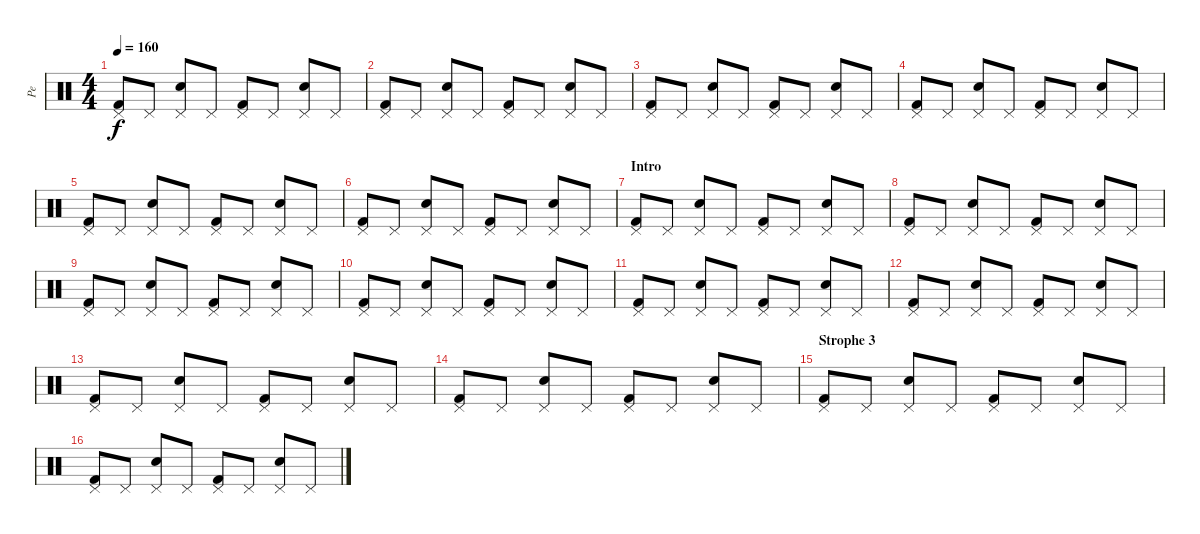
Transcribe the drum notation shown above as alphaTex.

\track ("Pe" "Pe") {instrument percussion}
\staff {score}
\articulation defaults
\ts (4 4)
\tempo 160
\clef neutral
\ks c
("Pedal Hi-Hat (hit)" "Kick (hit) 2").8{dy f} "Pedal Hi-Hat (hit)".8 ("Pedal Hi-Hat (hit)" "Electric Snare (hit)").8 "Pedal Hi-Hat (hit)".8 ("Pedal Hi-Hat (hit)" "Kick (hit) 2").8 "Pedal Hi-Hat (hit)".8 ("Pedal Hi-Hat (hit)" "Electric Snare (hit)").8 "Pedal Hi-Hat (hit)".8 |
("Pedal Hi-Hat (hit)" "Kick (hit) 2").8 "Pedal Hi-Hat (hit)".8 ("Pedal Hi-Hat (hit)" "Electric Snare (hit)").8 "Pedal Hi-Hat (hit)".8 ("Pedal Hi-Hat (hit)" "Kick (hit) 2").8 "Pedal Hi-Hat (hit)".8 ("Pedal Hi-Hat (hit)" "Electric Snare (hit)").8 "Pedal Hi-Hat (hit)".8 |
("Pedal Hi-Hat (hit)" "Kick (hit) 2").8 "Pedal Hi-Hat (hit)".8 ("Pedal Hi-Hat (hit)" "Electric Snare (hit)").8 "Pedal Hi-Hat (hit)".8 ("Pedal Hi-Hat (hit)" "Kick (hit) 2").8 "Pedal Hi-Hat (hit)".8 ("Pedal Hi-Hat (hit)" "Electric Snare (hit)").8 "Pedal Hi-Hat (hit)".8 |
("Pedal Hi-Hat (hit)" "Kick (hit) 2").8 "Pedal Hi-Hat (hit)".8 ("Pedal Hi-Hat (hit)" "Electric Snare (hit)").8 "Pedal Hi-Hat (hit)".8 ("Pedal Hi-Hat (hit)" "Kick (hit) 2").8 "Pedal Hi-Hat (hit)".8 ("Pedal Hi-Hat (hit)" "Electric Snare (hit)").8 "Pedal Hi-Hat (hit)".8 |
("Pedal Hi-Hat (hit)" "Kick (hit) 2").8 "Pedal Hi-Hat (hit)".8 ("Pedal Hi-Hat (hit)" "Electric Snare (hit)").8 "Pedal Hi-Hat (hit)".8 ("Pedal Hi-Hat (hit)" "Kick (hit) 2").8 "Pedal Hi-Hat (hit)".8 ("Pedal Hi-Hat (hit)" "Electric Snare (hit)").8 "Pedal Hi-Hat (hit)".8 |
("Pedal Hi-Hat (hit)" "Kick (hit) 2").8 "Pedal Hi-Hat (hit)".8 ("Pedal Hi-Hat (hit)" "Electric Snare (hit)").8 "Pedal Hi-Hat (hit)".8 ("Pedal Hi-Hat (hit)" "Kick (hit) 2").8 "Pedal Hi-Hat (hit)".8 ("Pedal Hi-Hat (hit)" "Electric Snare (hit)").8 "Pedal Hi-Hat (hit)".8 |
\section ("" "Intro")
("Pedal Hi-Hat (hit)" "Kick (hit) 2").8 "Pedal Hi-Hat (hit)".8 ("Pedal Hi-Hat (hit)" "Electric Snare (hit)").8 "Pedal Hi-Hat (hit)".8 ("Pedal Hi-Hat (hit)" "Kick (hit) 2").8 "Pedal Hi-Hat (hit)".8 ("Pedal Hi-Hat (hit)" "Electric Snare (hit)").8 "Pedal Hi-Hat (hit)".8 |
("Pedal Hi-Hat (hit)" "Kick (hit) 2").8 "Pedal Hi-Hat (hit)".8 ("Pedal Hi-Hat (hit)" "Electric Snare (hit)").8 "Pedal Hi-Hat (hit)".8 ("Pedal Hi-Hat (hit)" "Kick (hit) 2").8 "Pedal Hi-Hat (hit)".8 ("Pedal Hi-Hat (hit)" "Electric Snare (hit)").8 "Pedal Hi-Hat (hit)".8 |
("Pedal Hi-Hat (hit)" "Kick (hit) 2").8 "Pedal Hi-Hat (hit)".8 ("Pedal Hi-Hat (hit)" "Electric Snare (hit)").8 "Pedal Hi-Hat (hit)".8 ("Pedal Hi-Hat (hit)" "Kick (hit) 2").8 "Pedal Hi-Hat (hit)".8 ("Pedal Hi-Hat (hit)" "Electric Snare (hit)").8 "Pedal Hi-Hat (hit)".8 |
("Pedal Hi-Hat (hit)" "Kick (hit) 2").8 "Pedal Hi-Hat (hit)".8 ("Pedal Hi-Hat (hit)" "Electric Snare (hit)").8 "Pedal Hi-Hat (hit)".8 ("Pedal Hi-Hat (hit)" "Kick (hit) 2").8 "Pedal Hi-Hat (hit)".8 ("Pedal Hi-Hat (hit)" "Electric Snare (hit)").8 "Pedal Hi-Hat (hit)".8 |
("Pedal Hi-Hat (hit)" "Kick (hit) 2").8 "Pedal Hi-Hat (hit)".8 ("Pedal Hi-Hat (hit)" "Electric Snare (hit)").8 "Pedal Hi-Hat (hit)".8 ("Pedal Hi-Hat (hit)" "Kick (hit) 2").8 "Pedal Hi-Hat (hit)".8 ("Pedal Hi-Hat (hit)" "Electric Snare (hit)").8 "Pedal Hi-Hat (hit)".8 |
("Pedal Hi-Hat (hit)" "Kick (hit) 2").8 "Pedal Hi-Hat (hit)".8 ("Pedal Hi-Hat (hit)" "Electric Snare (hit)").8 "Pedal Hi-Hat (hit)".8 ("Pedal Hi-Hat (hit)" "Kick (hit) 2").8 "Pedal Hi-Hat (hit)".8 ("Pedal Hi-Hat (hit)" "Electric Snare (hit)").8 "Pedal Hi-Hat (hit)".8 |
("Pedal Hi-Hat (hit)" "Kick (hit) 2").8 "Pedal Hi-Hat (hit)".8 ("Pedal Hi-Hat (hit)" "Electric Snare (hit)").8 "Pedal Hi-Hat (hit)".8 ("Pedal Hi-Hat (hit)" "Kick (hit) 2").8 "Pedal Hi-Hat (hit)".8 ("Pedal Hi-Hat (hit)" "Electric Snare (hit)").8 "Pedal Hi-Hat (hit)".8 |
("Pedal Hi-Hat (hit)" "Kick (hit) 2").8 "Pedal Hi-Hat (hit)".8 ("Pedal Hi-Hat (hit)" "Electric Snare (hit)").8 "Pedal Hi-Hat (hit)".8 ("Pedal Hi-Hat (hit)" "Kick (hit) 2").8 "Pedal Hi-Hat (hit)".8 ("Pedal Hi-Hat (hit)" "Electric Snare (hit)").8 "Pedal Hi-Hat (hit)".8 |
\section ("" "Strophe 3")
("Pedal Hi-Hat (hit)" "Kick (hit) 2").8 "Pedal Hi-Hat (hit)".8 ("Pedal Hi-Hat (hit)" "Electric Snare (hit)").8 "Pedal Hi-Hat (hit)".8 ("Pedal Hi-Hat (hit)" "Kick (hit) 2").8 "Pedal Hi-Hat (hit)".8 ("Pedal Hi-Hat (hit)" "Electric Snare (hit)").8 "Pedal Hi-Hat (hit)".8 |
("Pedal Hi-Hat (hit)" "Kick (hit) 2").8 "Pedal Hi-Hat (hit)".8 ("Pedal Hi-Hat (hit)" "Electric Snare (hit)").8 "Pedal Hi-Hat (hit)".8 ("Pedal Hi-Hat (hit)" "Kick (hit) 2").8 "Pedal Hi-Hat (hit)".8 ("Pedal Hi-Hat (hit)" "Electric Snare (hit)").8 "Pedal Hi-Hat (hit)".8
